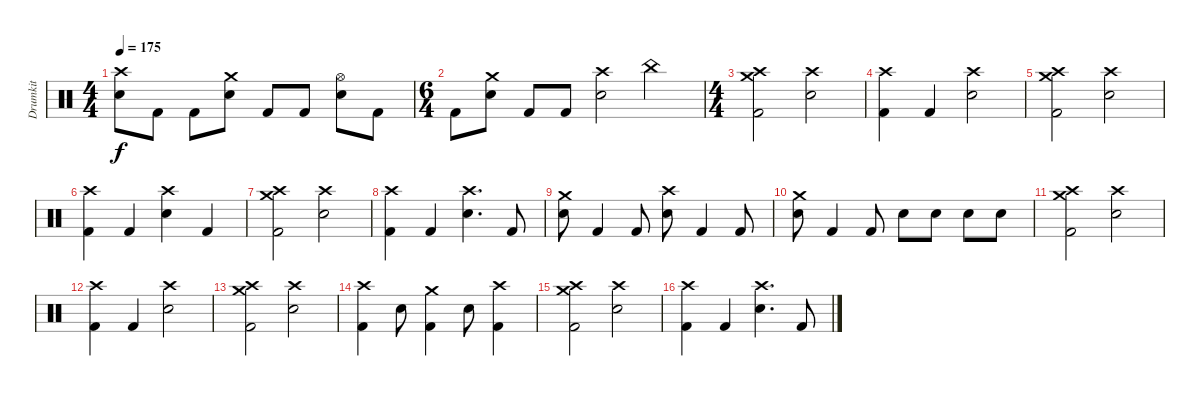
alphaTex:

\track ("Drumkit" "Drumkit") {instrument percussion}
\staff {score}
\articulation defaults
\ts (4 4)
\tempo 175
\clef neutral
\ks c
("Crash high (hit)" "Electric Snare (hit)").8{dy f} "Kick (hit) 2".8 "Kick (hit) 2".8 ("Crash medium (hit)" "Electric Snare (hit)").8 "Kick (hit) 2".8 "Kick (hit) 2".8 ("Hi-Hat (open)" "Electric Snare (hit)").8 "Kick (hit) 2".8 |
\ts (6 4)
"Kick (hit) 2".8 ("Crash medium (hit)" "Electric Snare (hit)").8 "Kick (hit) 2".8 "Kick (hit) 2".8 ("Crash high (hit)" "Electric Snare (hit)").2 "China (hit)".2 |
\ts (4 4)
("Crash high (hit)" "Crash medium (hit)" "Kick (hit) 2").2 ("Crash high (hit)" "Electric Snare (hit)").2 |
("Crash high (hit)" "Kick (hit) 2").4 "Kick (hit) 2".4 ("Crash high (hit)" "Electric Snare (hit)").2 |
("Crash high (hit)" "Crash medium (hit)" "Kick (hit) 2").2 ("Crash high (hit)" "Electric Snare (hit)").2 |
("Crash high (hit)" "Kick (hit) 2").4 "Kick (hit) 2".4 ("Crash high (hit)" "Electric Snare (hit)").4 "Kick (hit) 2".4 |
("Crash high (hit)" "Crash medium (hit)" "Kick (hit) 2").2 ("Crash high (hit)" "Electric Snare (hit)").2 |
("Crash high (hit)" "Kick (hit) 2").4 "Kick (hit) 2".4 ("Crash high (hit)" "Electric Snare (hit)").4{d} "Kick (hit) 2".8 |
("Crash medium (hit)" "Electric Snare (hit)").8 "Kick (hit) 2".4 "Kick (hit) 2".8 ("Crash high (hit)" "Electric Snare (hit)").8 "Kick (hit) 2".4 "Kick (hit) 2".8 |
("Crash medium (hit)" "Electric Snare (hit)").8 "Kick (hit) 2".4 "Kick (hit) 2".8 "Electric Snare (hit)".8 "Electric Snare (hit)".8 "Electric Snare (hit)".8 "Electric Snare (hit)".8 |
("Crash high (hit)" "Crash medium (hit)" "Kick (hit) 2").2 ("Crash high (hit)" "Electric Snare (hit)").2 |
("Crash high (hit)" "Kick (hit) 2").4 "Kick (hit) 2".4 ("Crash high (hit)" "Electric Snare (hit)").2 |
("Crash high (hit)" "Crash medium (hit)" "Kick (hit) 2").2 ("Crash high (hit)" "Electric Snare (hit)").2 |
("Crash high (hit)" "Kick (hit) 2").4 "Electric Snare (hit)".8 ("Crash medium (hit)" "Kick (hit) 2").4 "Electric Snare (hit)".8 ("Crash high (hit)" "Kick (hit) 2").4 |
("Crash high (hit)" "Crash medium (hit)" "Kick (hit) 2").2 ("Crash high (hit)" "Electric Snare (hit)").2 |
("Crash high (hit)" "Kick (hit) 2").4 "Kick (hit) 2".4 ("Crash high (hit)" "Electric Snare (hit)").4{d} "Kick (hit) 2".8
